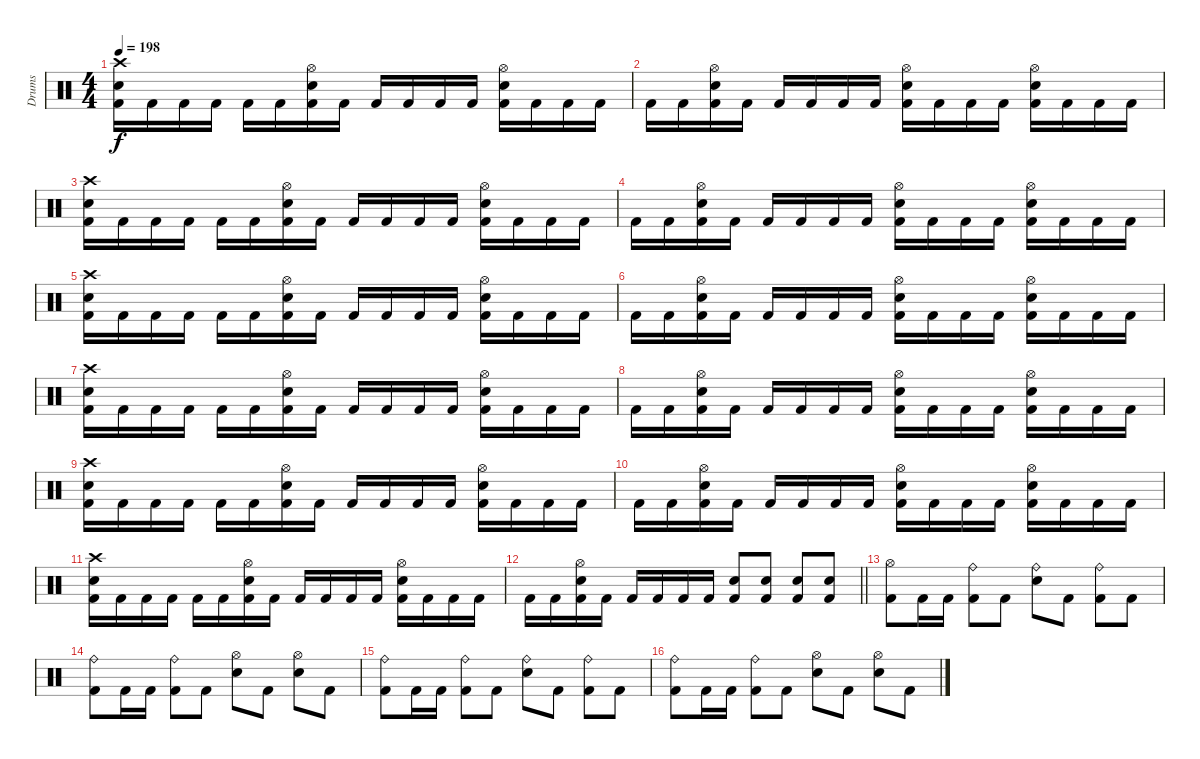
\track ("Drums" "Drums") {instrument percussion}
\staff {score}
\articulation defaults
\ts (4 4)
\tempo 198
\clef neutral
\ks c
("Crash high (hit)" "Snare (hit) 2" "Kick (hit) 2").16{dy f} "Kick (hit) 2".16 "Kick (hit) 2".16 "Kick (hit) 2".16 "Kick (hit) 2".16 "Kick (hit) 2".16 ("Hi-Hat (open)" "Snare (hit) 2" "Kick (hit) 2").16 "Kick (hit) 2".16 "Kick (hit) 2".16 "Kick (hit) 2".16 "Kick (hit) 2".16 "Kick (hit) 2".16 ("Hi-Hat (open)" "Snare (hit) 2" "Kick (hit) 2").16 "Kick (hit) 2".16 "Kick (hit) 2".16 "Kick (hit) 2".16 |
"Kick (hit) 2".16 "Kick (hit) 2".16 ("Hi-Hat (open)" "Snare (hit) 2" "Kick (hit) 2").16 "Kick (hit) 2".16 "Kick (hit) 2".16 "Kick (hit) 2".16 "Kick (hit) 2".16 "Kick (hit) 2".16 ("Hi-Hat (open)" "Snare (hit) 2" "Kick (hit) 2").16 "Kick (hit) 2".16 "Kick (hit) 2".16 "Kick (hit) 2".16 ("Hi-Hat (open)" "Snare (hit) 2" "Kick (hit) 2").16 "Kick (hit) 2".16 "Kick (hit) 2".16 "Kick (hit) 2".16 |
("Crash high (hit)" "Snare (hit) 2" "Kick (hit) 2").16 "Kick (hit) 2".16 "Kick (hit) 2".16 "Kick (hit) 2".16 "Kick (hit) 2".16 "Kick (hit) 2".16 ("Hi-Hat (open)" "Snare (hit) 2" "Kick (hit) 2").16 "Kick (hit) 2".16 "Kick (hit) 2".16 "Kick (hit) 2".16 "Kick (hit) 2".16 "Kick (hit) 2".16 ("Hi-Hat (open)" "Snare (hit) 2" "Kick (hit) 2").16 "Kick (hit) 2".16 "Kick (hit) 2".16 "Kick (hit) 2".16 |
"Kick (hit) 2".16 "Kick (hit) 2".16 ("Hi-Hat (open)" "Snare (hit) 2" "Kick (hit) 2").16 "Kick (hit) 2".16 "Kick (hit) 2".16 "Kick (hit) 2".16 "Kick (hit) 2".16 "Kick (hit) 2".16 ("Hi-Hat (open)" "Snare (hit) 2" "Kick (hit) 2").16 "Kick (hit) 2".16 "Kick (hit) 2".16 "Kick (hit) 2".16 ("Hi-Hat (open)" "Snare (hit) 2" "Kick (hit) 2").16 "Kick (hit) 2".16 "Kick (hit) 2".16 "Kick (hit) 2".16 |
("Crash high (hit)" "Snare (hit) 2" "Kick (hit) 2").16 "Kick (hit) 2".16 "Kick (hit) 2".16 "Kick (hit) 2".16 "Kick (hit) 2".16 "Kick (hit) 2".16 ("Hi-Hat (open)" "Snare (hit) 2" "Kick (hit) 2").16 "Kick (hit) 2".16 "Kick (hit) 2".16 "Kick (hit) 2".16 "Kick (hit) 2".16 "Kick (hit) 2".16 ("Hi-Hat (open)" "Snare (hit) 2" "Kick (hit) 2").16 "Kick (hit) 2".16 "Kick (hit) 2".16 "Kick (hit) 2".16 |
"Kick (hit) 2".16 "Kick (hit) 2".16 ("Hi-Hat (open)" "Snare (hit) 2" "Kick (hit) 2").16 "Kick (hit) 2".16 "Kick (hit) 2".16 "Kick (hit) 2".16 "Kick (hit) 2".16 "Kick (hit) 2".16 ("Hi-Hat (open)" "Snare (hit) 2" "Kick (hit) 2").16 "Kick (hit) 2".16 "Kick (hit) 2".16 "Kick (hit) 2".16 ("Hi-Hat (open)" "Snare (hit) 2" "Kick (hit) 2").16 "Kick (hit) 2".16 "Kick (hit) 2".16 "Kick (hit) 2".16 |
("Crash high (hit)" "Snare (hit) 2" "Kick (hit) 2").16 "Kick (hit) 2".16 "Kick (hit) 2".16 "Kick (hit) 2".16 "Kick (hit) 2".16 "Kick (hit) 2".16 ("Hi-Hat (open)" "Snare (hit) 2" "Kick (hit) 2").16 "Kick (hit) 2".16 "Kick (hit) 2".16 "Kick (hit) 2".16 "Kick (hit) 2".16 "Kick (hit) 2".16 ("Hi-Hat (open)" "Snare (hit) 2" "Kick (hit) 2").16 "Kick (hit) 2".16 "Kick (hit) 2".16 "Kick (hit) 2".16 |
"Kick (hit) 2".16 "Kick (hit) 2".16 ("Hi-Hat (open)" "Snare (hit) 2" "Kick (hit) 2").16 "Kick (hit) 2".16 "Kick (hit) 2".16 "Kick (hit) 2".16 "Kick (hit) 2".16 "Kick (hit) 2".16 ("Hi-Hat (open)" "Snare (hit) 2" "Kick (hit) 2").16 "Kick (hit) 2".16 "Kick (hit) 2".16 "Kick (hit) 2".16 ("Hi-Hat (open)" "Snare (hit) 2" "Kick (hit) 2").16 "Kick (hit) 2".16 "Kick (hit) 2".16 "Kick (hit) 2".16 |
("Crash high (hit)" "Snare (hit) 2" "Kick (hit) 2").16 "Kick (hit) 2".16 "Kick (hit) 2".16 "Kick (hit) 2".16 "Kick (hit) 2".16 "Kick (hit) 2".16 ("Hi-Hat (open)" "Snare (hit) 2" "Kick (hit) 2").16 "Kick (hit) 2".16 "Kick (hit) 2".16 "Kick (hit) 2".16 "Kick (hit) 2".16 "Kick (hit) 2".16 ("Hi-Hat (open)" "Snare (hit) 2" "Kick (hit) 2").16 "Kick (hit) 2".16 "Kick (hit) 2".16 "Kick (hit) 2".16 |
"Kick (hit) 2".16 "Kick (hit) 2".16 ("Hi-Hat (open)" "Snare (hit) 2" "Kick (hit) 2").16 "Kick (hit) 2".16 "Kick (hit) 2".16 "Kick (hit) 2".16 "Kick (hit) 2".16 "Kick (hit) 2".16 ("Hi-Hat (open)" "Snare (hit) 2" "Kick (hit) 2").16 "Kick (hit) 2".16 "Kick (hit) 2".16 "Kick (hit) 2".16 ("Hi-Hat (open)" "Snare (hit) 2" "Kick (hit) 2").16 "Kick (hit) 2".16 "Kick (hit) 2".16 "Kick (hit) 2".16 |
("Crash high (hit)" "Snare (hit) 2" "Kick (hit) 2").16 "Kick (hit) 2".16 "Kick (hit) 2".16 "Kick (hit) 2".16 "Kick (hit) 2".16 "Kick (hit) 2".16 ("Hi-Hat (open)" "Snare (hit) 2" "Kick (hit) 2").16 "Kick (hit) 2".16 "Kick (hit) 2".16 "Kick (hit) 2".16 "Kick (hit) 2".16 "Kick (hit) 2".16 ("Hi-Hat (open)" "Snare (hit) 2" "Kick (hit) 2").16 "Kick (hit) 2".16 "Kick (hit) 2".16 "Kick (hit) 2".16 |
\barLineRight lightlight "Kick (hit) 2".16 "Kick (hit) 2".16
("Hi-Hat (open)" "Snare (hit) 2" "Kick (hit) 2").16 "Kick (hit) 2".16 "Kick (hit) 2".16 "Kick (hit) 2".16 "Kick (hit) 2".16 "Kick (hit) 2".16 ("Snare (hit) 2" "Kick (hit) 2").8 ("Snare (hit) 2" "Kick (hit) 2").8 ("Snare (hit) 2" "Kick (hit) 2").8 ("Snare (hit) 2" "Kick (hit) 2").8 |
("Hi-Hat (open)" "Kick (hit) 2").8 "Kick (hit) 2".16 "Kick (hit) 2".16 ("Ride (bell)" "Kick (hit) 2").8 "Kick (hit) 2".8 ("Ride (bell)" "Snare (hit) 2").8 "Kick (hit) 2".8 ("Ride (bell)" "Kick (hit) 2").8 "Kick (hit) 2".8 |
("Ride (bell)" "Kick (hit) 2").8 "Kick (hit) 2".16 "Kick (hit) 2".16 ("Ride (bell)" "Kick (hit) 2").8 "Kick (hit) 2".8 ("Hi-Hat (open)" "Snare (hit) 2").8 "Kick (hit) 2".8 ("Hi-Hat (open)" "Snare (hit) 2").8 "Kick (hit) 2".8 |
("Ride (bell)" "Kick (hit) 2").8 "Kick (hit) 2".16 "Kick (hit) 2".16 ("Ride (bell)" "Kick (hit) 2").8 "Kick (hit) 2".8 ("Ride (bell)" "Snare (hit) 2").8 "Kick (hit) 2".8 ("Ride (bell)" "Kick (hit) 2").8 "Kick (hit) 2".8 |
("Ride (bell)" "Kick (hit) 2").8 "Kick (hit) 2".16 "Kick (hit) 2".16 ("Ride (bell)" "Kick (hit) 2").8 "Kick (hit) 2".8 ("Hi-Hat (open)" "Snare (hit) 2").8 "Kick (hit) 2".8 ("Hi-Hat (open)" "Snare (hit) 2").8 "Kick (hit) 2".8
